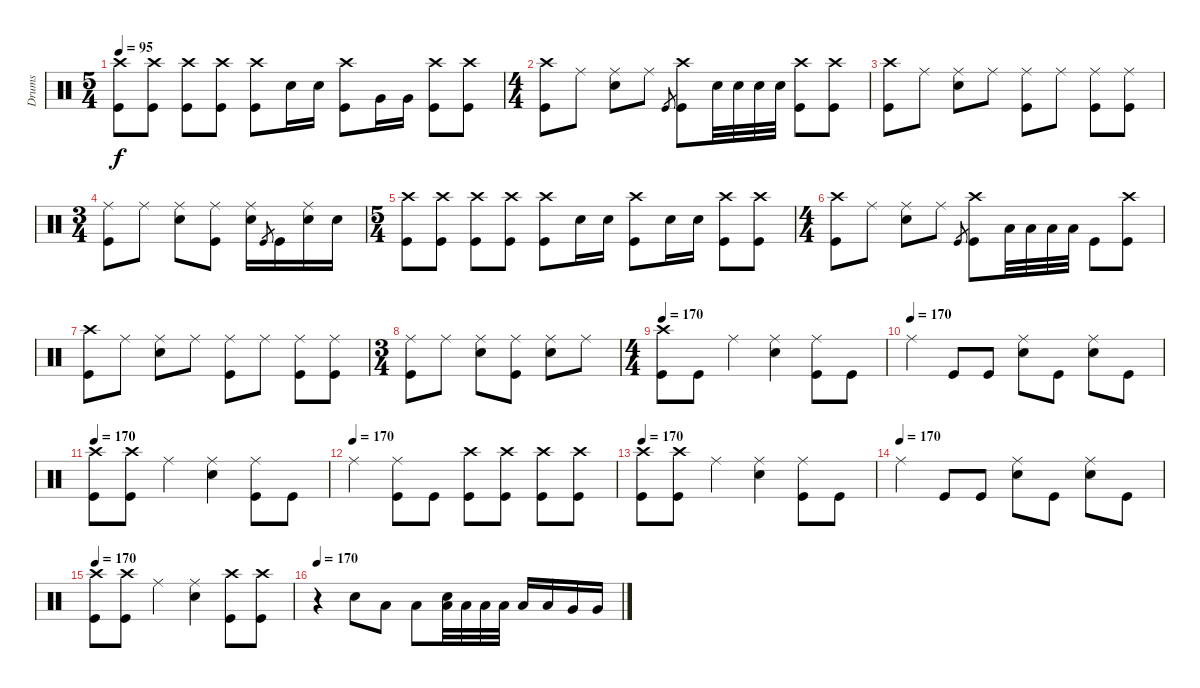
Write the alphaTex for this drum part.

\track ("Drums" "Drums") {instrument percussion}
\staff {score}
\articulation defaults
\ts (5 4)
\tempo 95
\clef neutral
\ks c
("Crash high (hit)" "Kick (hit)").8{dy f} ("Crash high (hit)" "Kick (hit)").8 ("Crash high (hit)" "Kick (hit)").8 ("Crash high (hit)" "Kick (hit)").8 ("Crash high (hit)" "Kick (hit)").8 "Electric Snare (hit)".16 "Electric Snare (hit)".16 ("Crash high (hit)" "Kick (hit)").8 "Very Low Tom (hit)".16 "Very Low Tom (hit)".16 ("Crash high (hit)" "Kick (hit)").8 ("Crash high (hit)" "Kick (hit)").8 |
\ts (4 4)
("Crash high (hit)" "Kick (hit)").8 "Ride (middle)".8 ("Ride (middle)" "Electric Snare (hit)").8 "Ride (middle)".8 "Kick (hit)".8{gr} ("Crash high (hit)" "Kick (hit)").8 "Electric Snare (hit)".32 "Electric Snare (hit)".32 "Electric Snare (hit)".32 "Electric Snare (hit)".32 ("Crash high (hit)" "Kick (hit)").8 ("Crash high (hit)" "Kick (hit)").8 |
("Crash high (hit)" "Kick (hit)").8 "Ride (middle)".8 ("Ride (middle)" "Electric Snare (hit)").8 "Ride (middle)".8 ("Ride (middle)" "Kick (hit)").8 "Ride (middle)".8 ("Ride (middle)" "Kick (hit)").8 ("Ride (middle)" "Kick (hit)").8 |
\ts (3 4)
("Ride (middle)" "Kick (hit)").8 "Ride (middle)".8 ("Ride (middle)" "Electric Snare (hit)").8 ("Ride (middle)" "Kick (hit)").8 ("Ride (middle)" "Electric Snare (hit)").16 "Kick (hit)".8{gr} "Kick (hit)".16 ("Ride (middle)" "Electric Snare (hit)").16 "Electric Snare (hit)".16 |
\ts (5 4)
("Crash high (hit)" "Kick (hit)").8 ("Crash high (hit)" "Kick (hit)").8 ("Crash high (hit)" "Kick (hit)").8 ("Crash high (hit)" "Kick (hit)").8 ("Crash high (hit)" "Kick (hit)").8 "Electric Snare (hit)".16 "Electric Snare (hit)".16 ("Crash high (hit)" "Kick (hit)").8 "Electric Snare (hit)".16 "Electric Snare (hit)".16 ("Crash high (hit)" "Kick (hit)").8 ("Crash high (hit)" "Kick (hit)").8 |
\ts (4 4)
("Crash high (hit)" "Kick (hit)").8 "Ride (middle)".8 ("Ride (middle)" "Electric Snare (hit)").8 "Ride (middle)".8 "Kick (hit)".8{gr} ("Crash high (hit)" "Kick (hit)").8 "Low Tom (hit)".32 "Low Tom (hit)".32 "Low Tom (hit)".32 "Low Tom (hit)".32 "Kick (hit)".8 ("Crash high (hit)" "Kick (hit)").8 |
("Crash high (hit)" "Kick (hit)").8 "Ride (middle)".8 ("Ride (middle)" "Electric Snare (hit)").8 "Ride (middle)".8 ("Ride (middle)" "Kick (hit)").8 "Ride (middle)".8 ("Ride (middle)" "Kick (hit)").8 ("Ride (middle)" "Kick (hit)").8 |
\ts (3 4)
("Ride (middle)" "Kick (hit)").8 "Ride (middle)".8 ("Ride (middle)" "Electric Snare (hit)").8 ("Ride (middle)" "Kick (hit)").8 ("Ride (middle)" "Electric Snare (hit)").8 "Ride (middle)".8 |
\ts (4 4)
\tempo 170
("Crash high (hit)" "Kick (hit)").8 "Kick (hit)".8 "Ride (middle)".4 ("Ride (middle)" "Electric Snare (hit)").4 ("Ride (middle)" "Kick (hit)").8 "Kick (hit)".8 |
\tempo (170)
"Ride (middle)".4 "Kick (hit)".8 "Kick (hit)".8 ("Ride (middle)" "Electric Snare (hit)").8 "Kick (hit)".8 ("Ride (middle)" "Electric Snare (hit)").8 "Kick (hit)".8 |
\tempo 170
("Crash high (hit)" "Kick (hit)").8 ("Crash high (hit)" "Kick (hit)").8 "Ride (middle)".4 ("Ride (middle)" "Electric Snare (hit)").4 ("Ride (middle)" "Kick (hit)").8 "Kick (hit)".8 |
\tempo (170)
"Ride (middle)".4 ("Ride (middle)" "Kick (hit)").8 "Kick (hit)".8 ("Crash high (hit)" "Kick (hit)").8 ("Crash high (hit)" "Kick (hit)").8 ("Crash high (hit)" "Kick (hit)").8 ("Crash high (hit)" "Kick (hit)").8 |
\tempo 170
("Crash high (hit)" "Kick (hit)").8 ("Crash high (hit)" "Kick (hit)").8 "Ride (middle)".4 ("Ride (middle)" "Electric Snare (hit)").4 ("Ride (middle)" "Kick (hit)").8 "Kick (hit)".8 |
\tempo (170)
"Ride (middle)".4 "Kick (hit)".8 "Kick (hit)".8 ("Ride (middle)" "Electric Snare (hit)").8 "Kick (hit)".8 ("Ride (middle)" "Electric Snare (hit)").8 "Kick (hit)".8 |
\tempo 170
("Crash high (hit)" "Kick (hit)").8 ("Crash high (hit)" "Kick (hit)").8 "Ride (middle)".4 ("Ride (middle)" "Electric Snare (hit)").4 ("Crash high (hit)" "Kick (hit)").8 ("Crash high (hit)" "Kick (hit)").8 |
\tempo 170
r.4 "Electric Snare (hit)".8 "Low Tom (hit)".8 "Low Tom (hit)".8 ("Low Tom (hit)" "Electric Snare (hit)").32 "Low Tom (hit)".32 "Low Tom (hit)".32 "Low Tom (hit)".32 "Low Tom (hit)".16 "Low Tom (hit)".16 "Very Low Tom (hit)".16 "Very Low Tom (hit)".16
